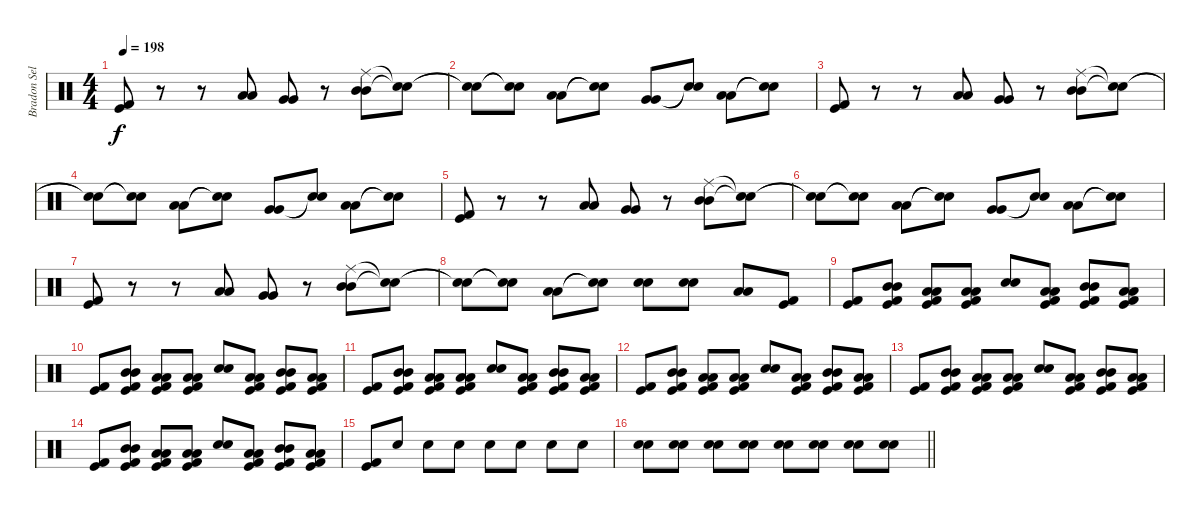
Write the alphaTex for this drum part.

\track ("Bradon Sellar" "Bradon Sel") {instrument percussion}
\staff {score}
\articulation defaults
\ts (4 4)
\tempo 198
\clef neutral
\ks c
("Kick (hit) 2" "Kick (hit)").8{dy f} r.8 r.8 ("Low Tom (hit)" "Low Tom (hit)").8 ("Very Low Tom (hit)" "Very Low Tom (hit)").8 r.8 ("Ride (middle)" "Mid Tom (hit)" "Mid Tom (hit)").8 ("Snare (hit)"{t} "Snare (hit)"{t}).8 |
("Snare (hit)"{t} "Snare (hit)"{t}).8 ("Snare (hit)"{t} "Snare (hit)"{t}).8 ("Low Tom (hit)" "Low Tom (hit)").8 ("Snare (hit)"{t} "Snare (hit)"{t}).8 ("Very Low Tom (hit)" "Very Low Tom (hit)").8 ("Snare (hit)"{t} "Snare (hit)"{t}).8 ("Low Floor Tom (hit)" "Low Floor Tom (hit)").8 ("Snare (hit)"{t} "Snare (hit)"{t}).8 |
("Kick (hit) 2" "Kick (hit)").8 r.8 r.8 ("Low Tom (hit)" "Low Tom (hit)").8 ("Very Low Tom (hit)" "Very Low Tom (hit)").8 r.8 ("Ride (middle)" "Mid Tom (hit)" "Mid Tom (hit)").8 ("Snare (hit)"{t} "Snare (hit)"{t}).8 |
("Snare (hit)"{t} "Snare (hit)"{t}).8 ("Snare (hit)"{t} "Snare (hit)"{t}).8 ("Low Tom (hit)" "Low Tom (hit)").8 ("Snare (hit)"{t} "Snare (hit)"{t}).8 ("Very Low Tom (hit)" "Very Low Tom (hit)").8 ("Snare (hit)"{t} "Snare (hit)"{t}).8 ("Low Floor Tom (hit)" "Low Floor Tom (hit)").8 ("Snare (hit)"{t} "Snare (hit)"{t}).8 |
("Kick (hit) 2" "Kick (hit)").8 r.8 r.8 ("Low Tom (hit)" "Low Tom (hit)").8 ("Very Low Tom (hit)" "Very Low Tom (hit)").8 r.8 ("Ride (middle)" "Mid Tom (hit)" "Mid Tom (hit)").8 ("Snare (hit)"{t} "Snare (hit)"{t}).8 |
("Snare (hit)"{t} "Snare (hit)"{t}).8 ("Snare (hit)"{t} "Snare (hit)"{t}).8 ("Low Tom (hit)" "Low Tom (hit)").8 ("Snare (hit)"{t} "Snare (hit)"{t}).8 ("Very Low Tom (hit)" "Very Low Tom (hit)").8 ("Snare (hit)"{t} "Snare (hit)"{t}).8 ("Low Floor Tom (hit)" "Low Floor Tom (hit)").8 ("Snare (hit)"{t} "Snare (hit)"{t}).8 |
("Kick (hit) 2" "Kick (hit)").8 r.8 r.8 ("Low Tom (hit)" "Low Tom (hit)").8 ("Very Low Tom (hit)" "Very Low Tom (hit)").8 r.8 ("Ride (middle)" "Mid Tom (hit)" "Mid Tom (hit)").8 ("Snare (hit)"{t} "Snare (hit)"{t}).8 |
("Snare (hit)"{t} "Snare (hit)"{t}).8 ("Snare (hit)"{t} "Snare (hit)"{t}).8 ("Low Tom (hit)" "Low Tom (hit)").8 ("Snare (hit)"{t} "Snare (hit)"{t}).8 ("Electric Snare (hit)" "Snare (hit) 2").8 ("Electric Snare (hit)" "Snare (hit) 2").8 ("Low Floor Tom (hit)" "Low Floor Tom (hit)").8 ("Kick (hit)" "Kick (hit) 2").8 |
("Kick (hit) 2" "Kick (hit)").8 ("Mid Tom (hit)" "Mid Tom (hit)" "Kick (hit) 2" "Kick (hit)").8 ("Low Tom (hit)" "Low Tom (hit)" "Kick (hit) 2" "Kick (hit)").8 ("Low Floor Tom (hit)" "Low Floor Tom (hit)" "Kick (hit) 2" "Kick (hit)").8 ("Electric Snare (hit)" "Snare (hit) 2").8 ("Low Tom (hit)" "Low Tom (hit)" "Kick (hit) 2" "Kick (hit)").8 ("Mid Tom (hit)" "Mid Tom (hit)" "Kick (hit) 2" "Kick (hit)").8 ("Low Tom (hit)" "Low Tom (hit)" "Kick (hit) 2" "Kick (hit)").8 |
("Kick (hit) 2" "Kick (hit)").8 ("Mid Tom (hit)" "Mid Tom (hit)" "Kick (hit) 2" "Kick (hit)").8 ("Low Tom (hit)" "Low Tom (hit)" "Kick (hit) 2" "Kick (hit)").8 ("Low Floor Tom (hit)" "Low Floor Tom (hit)" "Kick (hit) 2" "Kick (hit)").8 ("Electric Snare (hit)" "Snare (hit) 2").8 ("Low Tom (hit)" "Low Tom (hit)" "Kick (hit) 2" "Kick (hit)").8 ("Mid Tom (hit)" "Mid Tom (hit)" "Kick (hit) 2" "Kick (hit)").8 ("Low Tom (hit)" "Low Tom (hit)" "Kick (hit) 2" "Kick (hit)").8 |
("Kick (hit) 2" "Kick (hit)").8 ("Mid Tom (hit)" "Mid Tom (hit)" "Kick (hit) 2" "Kick (hit)").8 ("Low Tom (hit)" "Low Tom (hit)" "Kick (hit) 2" "Kick (hit)").8 ("Low Floor Tom (hit)" "Low Floor Tom (hit)" "Kick (hit) 2" "Kick (hit)").8 ("Electric Snare (hit)" "Snare (hit) 2").8 ("Low Tom (hit)" "Low Tom (hit)" "Kick (hit) 2" "Kick (hit)").8 ("Mid Tom (hit)" "Mid Tom (hit)" "Kick (hit) 2" "Kick (hit)").8 ("Low Tom (hit)" "Low Tom (hit)" "Kick (hit) 2" "Kick (hit)").8 |
("Kick (hit) 2" "Kick (hit)").8 ("Mid Tom (hit)" "Mid Tom (hit)" "Kick (hit) 2" "Kick (hit)").8 ("Low Tom (hit)" "Low Tom (hit)" "Kick (hit) 2" "Kick (hit)").8 ("Low Floor Tom (hit)" "Low Floor Tom (hit)" "Kick (hit) 2" "Kick (hit)").8 ("Electric Snare (hit)" "Snare (hit) 2").8 ("Low Tom (hit)" "Low Tom (hit)" "Kick (hit) 2" "Kick (hit)").8 ("Mid Tom (hit)" "Mid Tom (hit)" "Kick (hit) 2" "Kick (hit)").8 ("Low Tom (hit)" "Low Tom (hit)" "Kick (hit) 2" "Kick (hit)").8 |
("Kick (hit) 2" "Kick (hit)").8 ("Mid Tom (hit)" "Mid Tom (hit)" "Kick (hit) 2" "Kick (hit)").8 ("Low Tom (hit)" "Low Tom (hit)" "Kick (hit) 2" "Kick (hit)").8 ("Low Floor Tom (hit)" "Low Floor Tom (hit)" "Kick (hit) 2" "Kick (hit)").8 ("Electric Snare (hit)" "Snare (hit) 2").8 ("Low Tom (hit)" "Low Tom (hit)" "Kick (hit) 2" "Kick (hit)").8 ("Mid Tom (hit)" "Mid Tom (hit)" "Kick (hit) 2" "Kick (hit)").8 ("Low Tom (hit)" "Low Tom (hit)" "Kick (hit) 2" "Kick (hit)").8 |
("Kick (hit) 2" "Kick (hit)").8 ("Mid Tom (hit)" "Mid Tom (hit)" "Kick (hit) 2" "Kick (hit)").8 ("Low Tom (hit)" "Low Tom (hit)" "Kick (hit) 2" "Kick (hit)").8 ("Low Floor Tom (hit)" "Low Floor Tom (hit)" "Kick (hit) 2" "Kick (hit)").8 ("Electric Snare (hit)" "Snare (hit) 2").8 ("Low Tom (hit)" "Low Tom (hit)" "Kick (hit) 2" "Kick (hit)").8 ("Mid Tom (hit)" "Mid Tom (hit)" "Kick (hit) 2" "Kick (hit)").8 ("Low Tom (hit)" "Low Tom (hit)" "Kick (hit) 2" "Kick (hit)").8 |
("Kick (hit) 2" "Kick (hit)").8 "Electric Snare (hit)".8{volume 2} "Electric Snare (hit)".8{volume 13} "Electric Snare (hit)".8 "Electric Snare (hit)".8 "Electric Snare (hit)".8 "Electric Snare (hit)".8 "Electric Snare (hit)".8 |
\barLineRight lightlight
("Snare (hit) 2" "Electric Snare (hit)").8 ("Snare (hit) 2" "Electric Snare (hit)").8 ("Snare (hit) 2" "Electric Snare (hit)").8 ("Snare (hit) 2" "Electric Snare (hit)").8 ("Snare (hit) 2" "Electric Snare (hit)").8 ("Snare (hit) 2" "Electric Snare (hit)").8 ("Snare (hit) 2" "Electric Snare (hit)").8 ("Snare (hit) 2" "Electric Snare (hit)").8
